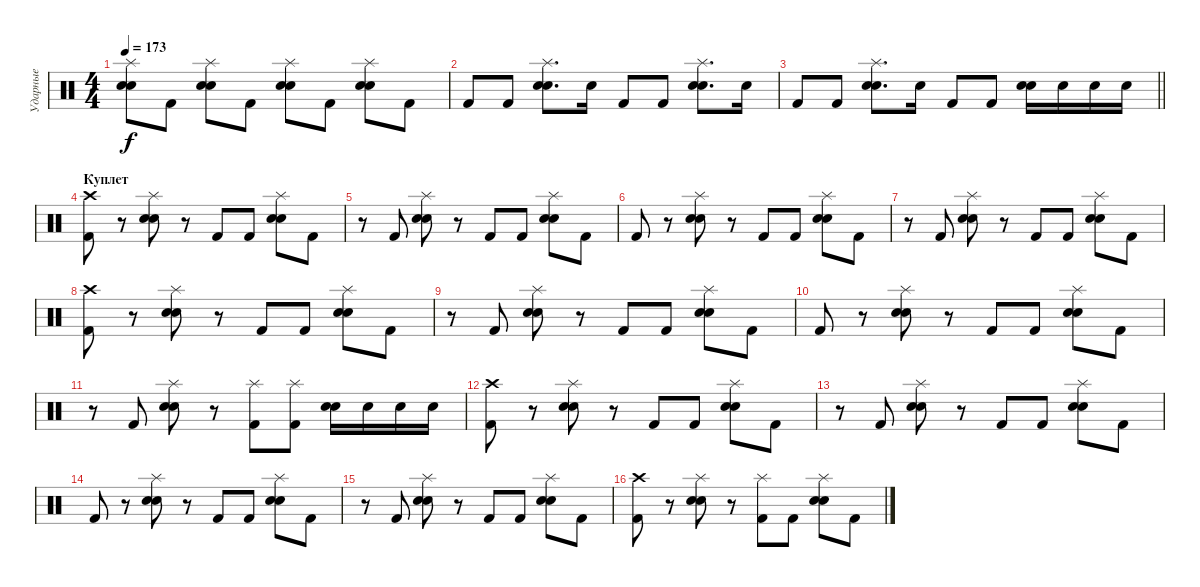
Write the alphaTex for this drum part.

\track ("Ударные" "Ударные") {instrument percussion}
\staff {score}
\articulation defaults
\ts (4 4)
\tempo 173
\clef neutral
\ks c
("Splash (hit)" "Electric Snare (hit)" "Snare (hit) 2").8{dy f} "Kick (hit) 2".8 ("Splash (hit)" "Electric Snare (hit)" "Snare (hit) 2").8 "Kick (hit) 2".8 ("Splash (hit)" "Electric Snare (hit)" "Snare (hit) 2").8 "Kick (hit) 2".8 ("Splash (hit)" "Electric Snare (hit)" "Snare (hit) 2").8 "Kick (hit) 2".8 |
"Kick (hit) 2".8 "Kick (hit) 2".8 ("Splash (hit)" "Electric Snare (hit)" "Snare (hit) 2").8{d} "Electric Snare (hit)".16 "Kick (hit) 2".8 "Kick (hit) 2".8 ("Splash (hit)" "Electric Snare (hit)" "Snare (hit) 2").8{d} "Electric Snare (hit)".16 |
\barLineRight lightlight "Kick (hit) 2".8 "Kick (hit) 2".8
("Splash (hit)" "Electric Snare (hit)" "Snare (hit) 2").8{d} "Electric Snare (hit)".16 "Kick (hit) 2".8 "Kick (hit) 2".8 ("Electric Snare (hit)" "Snare (hit) 2").16 "Electric Snare (hit)".16 "Electric Snare (hit)".16 "Electric Snare (hit)".16 |
\section ("" "Куплет")
("Crash high (hit)" "Kick (hit) 2").8 r.8 ("Splash (hit)" "Electric Snare (hit)" "Snare (hit) 2").8 r.8 "Kick (hit) 2".8 "Kick (hit) 2".8 ("Splash (hit)" "Electric Snare (hit)" "Snare (hit) 2").8 "Kick (hit) 2".8 |
r.8 "Kick (hit) 2".8 ("Splash (hit)" "Electric Snare (hit)" "Snare (hit) 2").8 r.8 "Kick (hit) 2".8 "Kick (hit) 2".8 ("Splash (hit)" "Electric Snare (hit)" "Snare (hit) 2").8 "Kick (hit) 2".8 |
"Kick (hit) 2".8 r.8 ("Splash (hit)" "Electric Snare (hit)" "Snare (hit) 2").8 r.8 "Kick (hit) 2".8 "Kick (hit) 2".8 ("Splash (hit)" "Electric Snare (hit)" "Snare (hit) 2").8 "Kick (hit) 2".8 |
r.8 "Kick (hit) 2".8 ("Splash (hit)" "Electric Snare (hit)" "Snare (hit) 2").8 r.8 "Kick (hit) 2".8 "Kick (hit) 2".8 ("Splash (hit)" "Electric Snare (hit)" "Snare (hit) 2").8 "Kick (hit) 2".8 |
("Crash high (hit)" "Kick (hit) 2").8 r.8 ("Splash (hit)" "Electric Snare (hit)" "Snare (hit) 2").8 r.8 "Kick (hit) 2".8 "Kick (hit) 2".8 ("Splash (hit)" "Electric Snare (hit)" "Snare (hit) 2").8 "Kick (hit) 2".8 |
r.8 "Kick (hit) 2".8 ("Splash (hit)" "Electric Snare (hit)" "Snare (hit) 2").8 r.8 "Kick (hit) 2".8 "Kick (hit) 2".8 ("Splash (hit)" "Electric Snare (hit)" "Snare (hit) 2").8 "Kick (hit) 2".8 |
"Kick (hit) 2".8 r.8 ("Splash (hit)" "Electric Snare (hit)" "Snare (hit) 2").8 r.8 "Kick (hit) 2".8 "Kick (hit) 2".8 ("Splash (hit)" "Electric Snare (hit)" "Snare (hit) 2").8 "Kick (hit) 2".8 |
r.8 "Kick (hit) 2".8 ("Splash (hit)" "Electric Snare (hit)" "Snare (hit) 2").8 r.8 ("Splash (hit)" "Kick (hit) 2").8 ("Splash (hit)" "Kick (hit) 2").8 ("Electric Snare (hit)" "Snare (hit) 2").16 "Electric Snare (hit)".16 "Electric Snare (hit)".16 "Electric Snare (hit)".16 |
("Crash high (hit)" "Kick (hit) 2").8 r.8 ("Splash (hit)" "Electric Snare (hit)" "Snare (hit) 2").8 r.8 "Kick (hit) 2".8 "Kick (hit) 2".8 ("Splash (hit)" "Electric Snare (hit)" "Snare (hit) 2").8 "Kick (hit) 2".8 |
r.8 "Kick (hit) 2".8 ("Splash (hit)" "Electric Snare (hit)" "Snare (hit) 2").8 r.8 "Kick (hit) 2".8 "Kick (hit) 2".8 ("Splash (hit)" "Electric Snare (hit)" "Snare (hit) 2").8 "Kick (hit) 2".8 |
"Kick (hit) 2".8 r.8 ("Splash (hit)" "Electric Snare (hit)" "Snare (hit) 2").8 r.8 "Kick (hit) 2".8 "Kick (hit) 2".8 ("Splash (hit)" "Electric Snare (hit)" "Snare (hit) 2").8 "Kick (hit) 2".8 |
r.8 "Kick (hit) 2".8 ("Splash (hit)" "Electric Snare (hit)" "Snare (hit) 2").8 r.8 "Kick (hit) 2".8 "Kick (hit) 2".8 ("Splash (hit)" "Electric Snare (hit)" "Snare (hit) 2").8 "Kick (hit) 2".8 |
("Crash high (hit)" "Kick (hit) 2").8 r.8 ("Splash (hit)" "Electric Snare (hit)" "Snare (hit) 2").8 r.8 ("Splash (hit)" "Kick (hit) 2").8 "Kick (hit) 2".8 ("Splash (hit)" "Electric Snare (hit)" "Snare (hit) 2").8 "Kick (hit) 2".8
